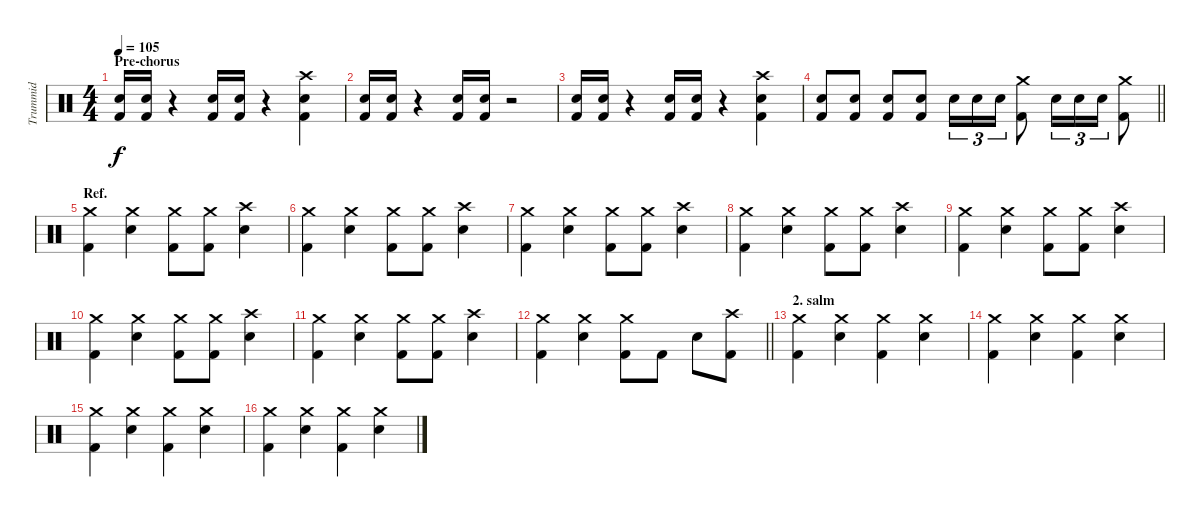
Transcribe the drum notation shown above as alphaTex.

\track ("Trummid" "Trummid") {instrument percussion}
\staff {score}
\articulation defaults
\ts (4 4)
\section ("" "Pre-chorus")
\tempo 105
\clef neutral
\ks c
("Electric Snare (hit)" "Kick (hit) 2").16{dy f} ("Electric Snare (hit)" "Kick (hit) 2").16 r.4 ("Electric Snare (hit)" "Kick (hit) 2").16 ("Electric Snare (hit)" "Kick (hit) 2").16 r.4 ("Crash high (hit)" "Electric Snare (hit)" "Kick (hit) 2").4 |
("Electric Snare (hit)" "Kick (hit) 2").16 ("Electric Snare (hit)" "Kick (hit) 2").16 r.4 ("Electric Snare (hit)" "Kick (hit) 2").16 ("Electric Snare (hit)" "Kick (hit) 2").16 r.2 |
("Electric Snare (hit)" "Kick (hit) 2").16 ("Electric Snare (hit)" "Kick (hit) 2").16 r.4 ("Electric Snare (hit)" "Kick (hit) 2").16 ("Electric Snare (hit)" "Kick (hit) 2").16 r.4 ("Crash high (hit)" "Electric Snare (hit)" "Kick (hit) 2").4 |
\barLineRight lightlight
("Electric Snare (hit)" "Kick (hit) 2").8 ("Electric Snare (hit)" "Kick (hit) 2").8 ("Electric Snare (hit)" "Kick (hit) 2").8 ("Electric Snare (hit)" "Kick (hit) 2").8 "Electric Snare (hit)".16{tu (3 2)} "Electric Snare (hit)".16{tu (3 2)} "Electric Snare (hit)".16{tu (3 2)} ("Crash medium (hit)" "Kick (hit) 2").8 "Electric Snare (hit)".16{tu (3 2)} "Electric Snare (hit)".16{tu (3 2)} "Electric Snare (hit)".16{tu (3 2)} ("Crash medium (hit)" "Kick (hit) 2").8 |
\section ("" "Ref.")
("Crash medium (hit)" "Kick (hit) 2").4 ("Crash medium (hit)" "Electric Snare (hit)").4 ("Crash medium (hit)" "Kick (hit) 2").8 ("Crash medium (hit)" "Kick (hit) 2").8 ("Crash high (hit)" "Electric Snare (hit)").4 |
("Crash medium (hit)" "Kick (hit) 2").4 ("Crash medium (hit)" "Electric Snare (hit)").4 ("Crash medium (hit)" "Kick (hit) 2").8 ("Crash medium (hit)" "Kick (hit) 2").8 ("Crash high (hit)" "Electric Snare (hit)").4 |
("Crash medium (hit)" "Kick (hit) 2").4 ("Crash medium (hit)" "Electric Snare (hit)").4 ("Crash medium (hit)" "Kick (hit) 2").8 ("Crash medium (hit)" "Kick (hit) 2").8 ("Crash high (hit)" "Electric Snare (hit)").4 |
("Crash medium (hit)" "Kick (hit) 2").4 ("Crash medium (hit)" "Electric Snare (hit)").4 ("Crash medium (hit)" "Kick (hit) 2").8 ("Crash medium (hit)" "Kick (hit) 2").8 ("Crash high (hit)" "Electric Snare (hit)").4 |
("Crash medium (hit)" "Kick (hit) 2").4 ("Crash medium (hit)" "Electric Snare (hit)").4 ("Crash medium (hit)" "Kick (hit) 2").8 ("Crash medium (hit)" "Kick (hit) 2").8 ("Crash high (hit)" "Electric Snare (hit)").4 |
("Crash medium (hit)" "Kick (hit) 2").4 ("Crash medium (hit)" "Electric Snare (hit)").4 ("Crash medium (hit)" "Kick (hit) 2").8 ("Crash medium (hit)" "Kick (hit) 2").8 ("Crash high (hit)" "Electric Snare (hit)").4 |
("Crash medium (hit)" "Kick (hit) 2").4 ("Crash medium (hit)" "Electric Snare (hit)").4 ("Crash medium (hit)" "Kick (hit) 2").8 ("Crash medium (hit)" "Kick (hit) 2").8 ("Crash high (hit)" "Electric Snare (hit)").4 |
\barLineRight lightlight
("Crash medium (hit)" "Kick (hit) 2").4 ("Crash medium (hit)" "Electric Snare (hit)").4 ("Crash medium (hit)" "Kick (hit) 2").8 "Kick (hit) 2".8 "Electric Snare (hit)".8 ("Crash high (hit)" "Kick (hit) 2").8 |
\section ("" "2. salm")
("Crash medium (hit)" "Kick (hit) 2").4 ("Crash medium (hit)" "Electric Snare (hit)").4 ("Crash medium (hit)" "Kick (hit) 2").4 ("Crash medium (hit)" "Electric Snare (hit)").4 |
("Crash medium (hit)" "Kick (hit) 2").4 ("Crash medium (hit)" "Electric Snare (hit)").4 ("Crash medium (hit)" "Kick (hit) 2").4 ("Crash medium (hit)" "Electric Snare (hit)").4 |
("Crash medium (hit)" "Kick (hit) 2").4 ("Crash medium (hit)" "Electric Snare (hit)").4 ("Crash medium (hit)" "Kick (hit) 2").4 ("Crash medium (hit)" "Electric Snare (hit)").4 |
("Crash medium (hit)" "Kick (hit) 2").4 ("Crash medium (hit)" "Electric Snare (hit)").4 ("Crash medium (hit)" "Kick (hit) 2").4 ("Crash medium (hit)" "Electric Snare (hit)").4
